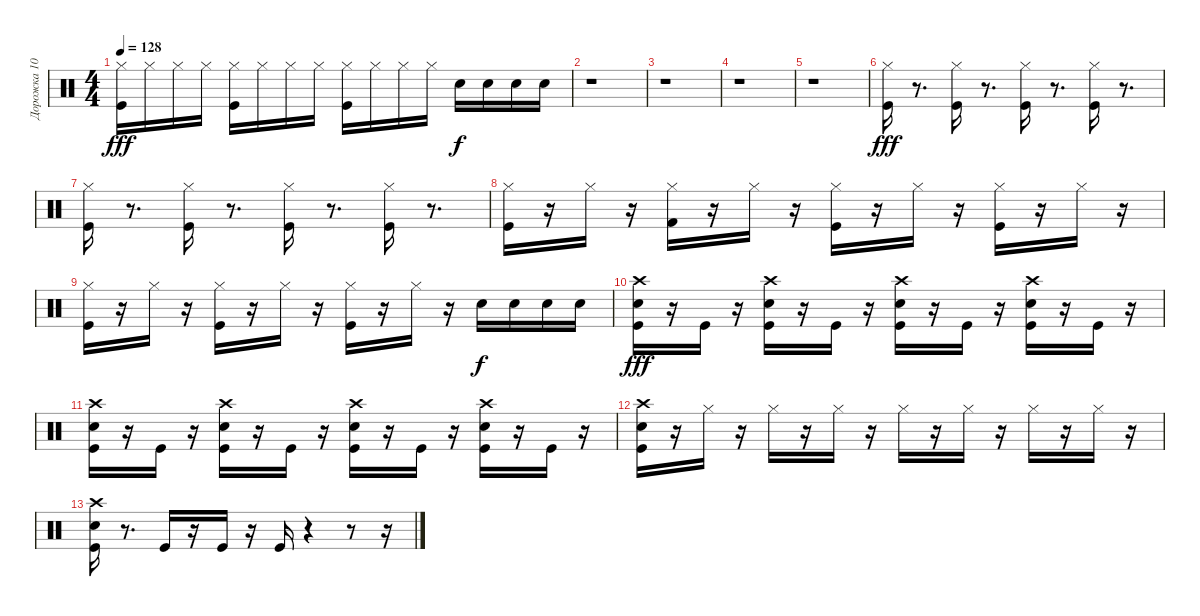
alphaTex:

\track ("Дорожка 10" "Дорожка 10") {instrument percussion}
\staff {score}
\articulation defaults
\ts (4 4)
\tempo 128
\clef neutral
\ks c
("Kick (hit)" "Hi-Hat (closed)").16{dy fff} "Hi-Hat (closed)".16 "Hi-Hat (closed)".16 "Hi-Hat (closed)".16 ("Hi-Hat (closed)" "Kick (hit)").16 "Hi-Hat (closed)".16 "Hi-Hat (closed)".16 "Hi-Hat (closed)".16 ("Kick (hit)" "Hi-Hat (closed)").16 "Hi-Hat (closed)".16 "Hi-Hat (closed)".16 "Hi-Hat (closed)".16 "Snare (hit) 2".16{dy f} "Snare (hit) 2".16 "Snare (hit) 2".16 "Snare (hit) 2".16 |
r.1 |
r.1 |
r.1 |
r.1 |
("Kick (hit)" "Hi-Hat (closed)").16{dy fff} r.8{d} ("Kick (hit)" "Hi-Hat (closed)").16 r.8{d} ("Kick (hit)" "Hi-Hat (closed)").16 r.8{d} ("Kick (hit)" "Hi-Hat (closed)").16 r.8{d} |
("Kick (hit)" "Hi-Hat (closed)").16 r.8{d} ("Kick (hit)" "Hi-Hat (closed)").16 r.8{d} ("Kick (hit)" "Hi-Hat (closed)").16 r.8{d} ("Kick (hit)" "Hi-Hat (closed)").16 r.8{d} |
("Kick (hit)" "Hi-Hat (closed)").16 r.16 "Hi-Hat (closed)".16 r.16 ("Kick (hit) 2" "Hi-Hat (closed)").16 r.16 "Hi-Hat (closed)".16 r.16 ("Kick (hit)" "Hi-Hat (closed)").16 r.16 "Hi-Hat (closed)".16 r.16 ("Kick (hit)" "Hi-Hat (closed)").16 r.16 "Hi-Hat (closed)".16 r.16 |
("Kick (hit)" "Hi-Hat (closed)").16 r.16 "Hi-Hat (closed)".16 r.16 ("Kick (hit)" "Hi-Hat (closed)").16 r.16 "Hi-Hat (closed)".16 r.16 ("Kick (hit)" "Hi-Hat (closed)").16 r.16 "Hi-Hat (closed)".16 r.16 "Snare (hit) 2".16{dy f} "Snare (hit) 2".16 "Snare (hit) 2".16 "Snare (hit) 2".16 |
("Electric Snare (hit)" "Crash high (hit)" "Kick (hit)").16{dy fff} r.16 "Kick (hit)".16 r.16 ("Electric Snare (hit)" "Crash high (hit)" "Kick (hit)").16 r.16 "Kick (hit)".16 r.16 ("Kick (hit)" "Electric Snare (hit)" "Crash high (hit)").16 r.16 "Kick (hit)".16 r.16 ("Kick (hit)" "Electric Snare (hit)" "Crash high (hit)").16 r.16 "Kick (hit)".16 r.16 |
("Electric Snare (hit)" "Kick (hit)" "Crash high (hit)").16 r.16 "Kick (hit)".16 r.16 ("Electric Snare (hit)" "Kick (hit)" "Crash high (hit)").16 r.16 "Kick (hit)".16 r.16 ("Crash high (hit)" "Kick (hit)" "Electric Snare (hit)").16 r.16 "Kick (hit)".16 r.16 ("Kick (hit)" "Crash high (hit)" "Electric Snare (hit)").16 r.16 "Kick (hit)".16 r.16 |
("Kick (hit)" "Crash high (hit)" "Electric Snare (hit)").16 r.16 "Hi-Hat (closed)".16 r.16 "Hi-Hat (closed)".16 r.16 "Hi-Hat (closed)".16 r.16 "Hi-Hat (closed)".16 r.16 "Hi-Hat (closed)".16 r.16 "Hi-Hat (closed)".16 r.16 "Hi-Hat (closed)".16 r.16 |
("Electric Snare (hit)" "Crash high (hit)" "Kick (hit)").16 r.8{d} "Kick (hit)".16 r.16 "Kick (hit)".16 r.16 "Kick (hit)".16 r.4 r.8 r.16
